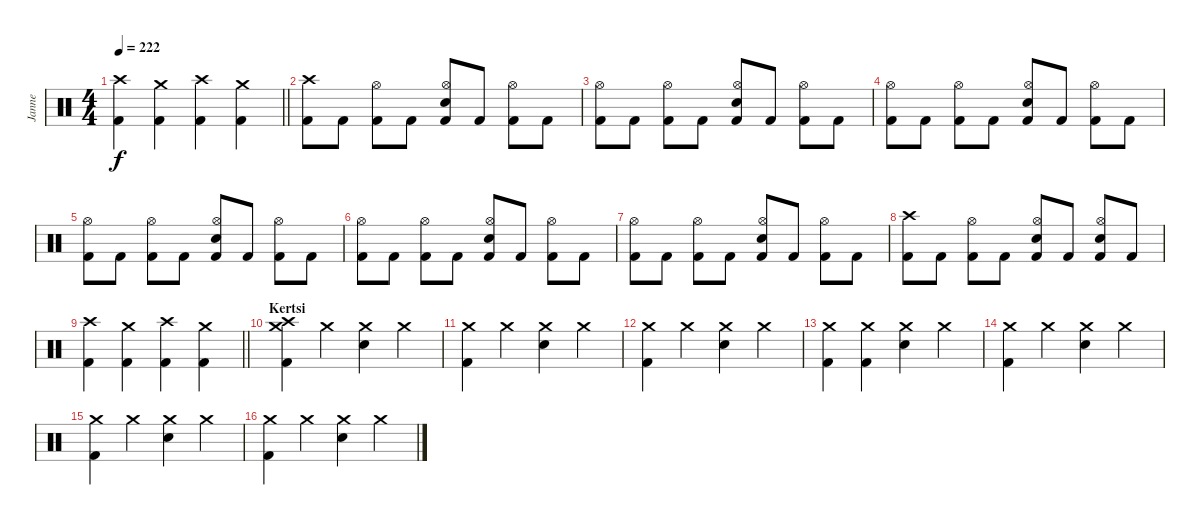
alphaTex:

\track ("Janne" "Janne") {instrument percussion}
\staff {score}
\articulation defaults
\ts (4 4)
\tempo 222
\clef neutral
\barLineRight lightlight
\ks c
("Crash high (hit)" "Kick (hit) 2").4{dy f} ("Crash medium (hit)" "Kick (hit) 2").4 ("Crash high (hit)" "Kick (hit) 2").4 ("Crash medium (hit)" "Kick (hit) 2").4 |
("Crash high (hit)" "Kick (hit) 2").8 "Kick (hit) 2".8 ("Hi-Hat (open)" "Kick (hit) 2").8 "Kick (hit) 2".8 ("Hi-Hat (open)" "Electric Snare (hit)" "Kick (hit) 2").8 "Kick (hit) 2".8 ("Hi-Hat (open)" "Kick (hit) 2").8 "Kick (hit) 2".8 |
("Hi-Hat (open)" "Kick (hit) 2").8 "Kick (hit) 2".8 ("Hi-Hat (open)" "Kick (hit) 2").8 "Kick (hit) 2".8 ("Hi-Hat (open)" "Electric Snare (hit)" "Kick (hit) 2").8 "Kick (hit) 2".8 ("Hi-Hat (open)" "Kick (hit) 2").8 "Kick (hit) 2".8 |
("Hi-Hat (open)" "Kick (hit) 2").8 "Kick (hit) 2".8 ("Hi-Hat (open)" "Kick (hit) 2").8 "Kick (hit) 2".8 ("Hi-Hat (open)" "Electric Snare (hit)" "Kick (hit) 2").8 "Kick (hit) 2".8 ("Hi-Hat (open)" "Kick (hit) 2").8 "Kick (hit) 2".8 |
("Hi-Hat (open)" "Kick (hit) 2").8 "Kick (hit) 2".8 ("Hi-Hat (open)" "Kick (hit) 2").8 "Kick (hit) 2".8 ("Hi-Hat (open)" "Electric Snare (hit)" "Kick (hit) 2").8 "Kick (hit) 2".8 ("Hi-Hat (open)" "Kick (hit) 2").8 "Kick (hit) 2".8 |
("Hi-Hat (open)" "Kick (hit) 2").8 "Kick (hit) 2".8 ("Hi-Hat (open)" "Kick (hit) 2").8 "Kick (hit) 2".8 ("Hi-Hat (open)" "Electric Snare (hit)" "Kick (hit) 2").8 "Kick (hit) 2".8 ("Hi-Hat (open)" "Kick (hit) 2").8 "Kick (hit) 2".8 |
("Hi-Hat (open)" "Kick (hit) 2").8 "Kick (hit) 2".8 ("Hi-Hat (open)" "Kick (hit) 2").8 "Kick (hit) 2".8 ("Hi-Hat (open)" "Electric Snare (hit)" "Kick (hit) 2").8 "Kick (hit) 2".8 ("Hi-Hat (open)" "Kick (hit) 2").8 "Kick (hit) 2".8 |
("Crash high (hit)" "Kick (hit) 2").8 "Kick (hit) 2".8 ("Hi-Hat (open)" "Kick (hit) 2").8 "Kick (hit) 2".8 ("Hi-Hat (open)" "Electric Snare (hit)" "Kick (hit) 2").8 "Kick (hit) 2".8 ("Hi-Hat (open)" "Electric Snare (hit)" "Kick (hit) 2").8 "Kick (hit) 2".8 |
\barLineRight lightlight
("Crash high (hit)" "Kick (hit) 2").4 ("Crash medium (hit)" "Kick (hit) 2").4 ("Crash high (hit)" "Kick (hit) 2").4 ("Crash medium (hit)" "Kick (hit) 2").4 |
\section ("" "Kertsi")
("Crash medium (hit)" "Crash high (hit)" "Kick (hit) 2").4 "Crash medium (hit)".4 ("Crash medium (hit)" "Electric Snare (hit)").4 "Crash medium (hit)".4 |
("Crash medium (hit)" "Kick (hit) 2").4 "Crash medium (hit)".4 ("Crash medium (hit)" "Electric Snare (hit)").4 "Crash medium (hit)".4 |
("Crash medium (hit)" "Kick (hit) 2").4 "Crash medium (hit)".4 ("Crash medium (hit)" "Electric Snare (hit)").4 "Crash medium (hit)".4 |
("Crash medium (hit)" "Kick (hit) 2").4 ("Crash medium (hit)" "Kick (hit) 2").4 ("Crash medium (hit)" "Electric Snare (hit)").4 "Crash medium (hit)".4 |
("Crash medium (hit)" "Kick (hit) 2").4 "Crash medium (hit)".4 ("Crash medium (hit)" "Electric Snare (hit)").4 "Crash medium (hit)".4 |
("Crash medium (hit)" "Kick (hit) 2").4 "Crash medium (hit)".4 ("Crash medium (hit)" "Electric Snare (hit)").4 "Crash medium (hit)".4 |
("Crash medium (hit)" "Kick (hit) 2").4 "Crash medium (hit)".4 ("Crash medium (hit)" "Electric Snare (hit)").4 "Crash medium (hit)".4
